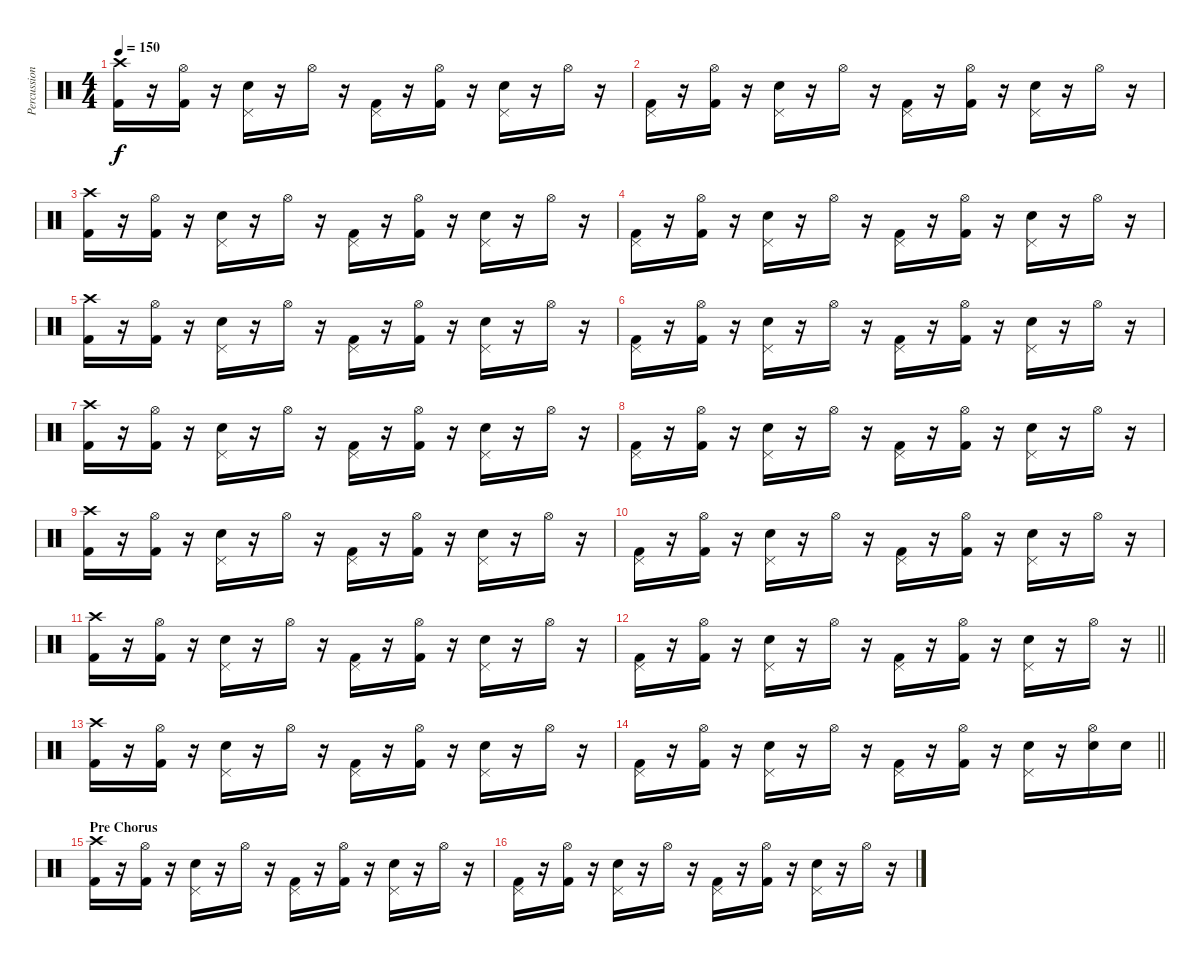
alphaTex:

\track ("Percussion" "Percussion") {instrument percussion}
\staff {score}
\articulation defaults
\ts (4 4)
\tempo 150
\clef neutral
\ks c
("Crash high (hit)" "Kick (hit) 2").16{dy f} r.16 ("Hi-Hat (open)" "Kick (hit) 2").16 r.16 ("Pedal Hi-Hat (hit)" "Snare (hit) 2").16 r.16 "Hi-Hat (open)".16 r.16 ("Pedal Hi-Hat (hit)" "Kick (hit) 2").16 r.16 ("Hi-Hat (open)" "Kick (hit) 2").16 r.16 ("Pedal Hi-Hat (hit)" "Snare (hit) 2").16 r.16 "Hi-Hat (open)".16 r.16 |
("Pedal Hi-Hat (hit)" "Kick (hit) 2").16 r.16 ("Hi-Hat (open)" "Kick (hit) 2").16 r.16 ("Pedal Hi-Hat (hit)" "Snare (hit) 2").16 r.16 "Hi-Hat (open)".16 r.16 ("Pedal Hi-Hat (hit)" "Kick (hit) 2").16 r.16 ("Hi-Hat (open)" "Kick (hit) 2").16 r.16 ("Pedal Hi-Hat (hit)" "Snare (hit) 2").16 r.16 "Hi-Hat (open)".16 r.16 |
("Crash high (hit)" "Kick (hit) 2").16 r.16 ("Hi-Hat (open)" "Kick (hit) 2").16 r.16 ("Pedal Hi-Hat (hit)" "Snare (hit) 2").16 r.16 "Hi-Hat (open)".16 r.16 ("Pedal Hi-Hat (hit)" "Kick (hit) 2").16 r.16 ("Hi-Hat (open)" "Kick (hit) 2").16 r.16 ("Pedal Hi-Hat (hit)" "Snare (hit) 2").16 r.16 "Hi-Hat (open)".16 r.16 |
("Pedal Hi-Hat (hit)" "Kick (hit) 2").16 r.16 ("Hi-Hat (open)" "Kick (hit) 2").16 r.16 ("Pedal Hi-Hat (hit)" "Snare (hit) 2").16 r.16 "Hi-Hat (open)".16 r.16 ("Pedal Hi-Hat (hit)" "Kick (hit) 2").16 r.16 ("Hi-Hat (open)" "Kick (hit) 2").16 r.16 ("Pedal Hi-Hat (hit)" "Snare (hit) 2").16 r.16 "Hi-Hat (open)".16 r.16 |
("Crash high (hit)" "Kick (hit) 2").16 r.16 ("Hi-Hat (open)" "Kick (hit) 2").16 r.16 ("Pedal Hi-Hat (hit)" "Snare (hit) 2").16 r.16 "Hi-Hat (open)".16 r.16 ("Pedal Hi-Hat (hit)" "Kick (hit) 2").16 r.16 ("Hi-Hat (open)" "Kick (hit) 2").16 r.16 ("Pedal Hi-Hat (hit)" "Snare (hit) 2").16 r.16 "Hi-Hat (open)".16 r.16 |
("Pedal Hi-Hat (hit)" "Kick (hit) 2").16 r.16 ("Hi-Hat (open)" "Kick (hit) 2").16 r.16 ("Pedal Hi-Hat (hit)" "Snare (hit) 2").16 r.16 "Hi-Hat (open)".16 r.16 ("Pedal Hi-Hat (hit)" "Kick (hit) 2").16 r.16 ("Hi-Hat (open)" "Kick (hit) 2").16 r.16 ("Pedal Hi-Hat (hit)" "Snare (hit) 2").16 r.16 "Hi-Hat (open)".16 r.16 |
("Crash high (hit)" "Kick (hit) 2").16 r.16 ("Hi-Hat (open)" "Kick (hit) 2").16 r.16 ("Pedal Hi-Hat (hit)" "Snare (hit) 2").16 r.16 "Hi-Hat (open)".16 r.16 ("Pedal Hi-Hat (hit)" "Kick (hit) 2").16 r.16 ("Hi-Hat (open)" "Kick (hit) 2").16 r.16 ("Pedal Hi-Hat (hit)" "Snare (hit) 2").16 r.16 "Hi-Hat (open)".16 r.16 |
("Pedal Hi-Hat (hit)" "Kick (hit) 2").16 r.16 ("Hi-Hat (open)" "Kick (hit) 2").16 r.16 ("Pedal Hi-Hat (hit)" "Snare (hit) 2").16 r.16 "Hi-Hat (open)".16 r.16 ("Pedal Hi-Hat (hit)" "Kick (hit) 2").16 r.16 ("Hi-Hat (open)" "Kick (hit) 2").16 r.16 ("Pedal Hi-Hat (hit)" "Snare (hit) 2").16 r.16 "Hi-Hat (open)".16 r.16 |
("Crash high (hit)" "Kick (hit) 2").16 r.16 ("Hi-Hat (open)" "Kick (hit) 2").16 r.16 ("Pedal Hi-Hat (hit)" "Snare (hit) 2").16 r.16 "Hi-Hat (open)".16 r.16 ("Pedal Hi-Hat (hit)" "Kick (hit) 2").16 r.16 ("Hi-Hat (open)" "Kick (hit) 2").16 r.16 ("Pedal Hi-Hat (hit)" "Snare (hit) 2").16 r.16 "Hi-Hat (open)".16 r.16 |
("Pedal Hi-Hat (hit)" "Kick (hit) 2").16 r.16 ("Hi-Hat (open)" "Kick (hit) 2").16 r.16 ("Pedal Hi-Hat (hit)" "Snare (hit) 2").16 r.16 "Hi-Hat (open)".16 r.16 ("Pedal Hi-Hat (hit)" "Kick (hit) 2").16 r.16 ("Hi-Hat (open)" "Kick (hit) 2").16 r.16 ("Pedal Hi-Hat (hit)" "Snare (hit) 2").16 r.16 "Hi-Hat (open)".16 r.16 |
("Crash high (hit)" "Kick (hit) 2").16 r.16 ("Hi-Hat (open)" "Kick (hit) 2").16 r.16 ("Pedal Hi-Hat (hit)" "Snare (hit) 2").16 r.16 "Hi-Hat (open)".16 r.16 ("Pedal Hi-Hat (hit)" "Kick (hit) 2").16 r.16 ("Hi-Hat (open)" "Kick (hit) 2").16 r.16 ("Pedal Hi-Hat (hit)" "Snare (hit) 2").16 r.16 "Hi-Hat (open)".16 r.16 |
\barLineRight lightlight
("Pedal Hi-Hat (hit)" "Kick (hit) 2").16 r.16 ("Hi-Hat (open)" "Kick (hit) 2").16 r.16 ("Pedal Hi-Hat (hit)" "Snare (hit) 2").16 r.16 "Hi-Hat (open)".16 r.16 ("Pedal Hi-Hat (hit)" "Kick (hit) 2").16 r.16 ("Hi-Hat (open)" "Kick (hit) 2").16 r.16 ("Pedal Hi-Hat (hit)" "Snare (hit) 2").16 r.16 "Hi-Hat (open)".16 r.16 |
("Crash high (hit)" "Kick (hit) 2").16 r.16 ("Hi-Hat (open)" "Kick (hit) 2").16 r.16 ("Pedal Hi-Hat (hit)" "Snare (hit) 2").16 r.16 "Hi-Hat (open)".16 r.16 ("Pedal Hi-Hat (hit)" "Kick (hit) 2").16 r.16 ("Hi-Hat (open)" "Kick (hit) 2").16 r.16 ("Pedal Hi-Hat (hit)" "Snare (hit) 2").16 r.16 "Hi-Hat (open)".16 r.16 |
\barLineRight lightlight
("Pedal Hi-Hat (hit)" "Kick (hit) 2").16 r.16 ("Hi-Hat (open)" "Kick (hit) 2").16 r.16 ("Pedal Hi-Hat (hit)" "Snare (hit) 2").16 r.16 "Hi-Hat (open)".16 r.16 ("Pedal Hi-Hat (hit)" "Kick (hit) 2").16 r.16 ("Hi-Hat (open)" "Kick (hit) 2").16 r.16 ("Pedal Hi-Hat (hit)" "Snare (hit) 2").16 r.16 ("Hi-Hat (open)" "Snare (hit) 2").16 "Snare (hit) 2".16 |
\section ("" "Pre Chorus")
("Crash high (hit)" "Kick (hit) 2").16 r.16 ("Hi-Hat (open)" "Kick (hit) 2").16 r.16 ("Pedal Hi-Hat (hit)" "Snare (hit) 2").16 r.16 "Hi-Hat (open)".16 r.16 ("Pedal Hi-Hat (hit)" "Kick (hit) 2").16 r.16 ("Hi-Hat (open)" "Kick (hit) 2").16 r.16 ("Pedal Hi-Hat (hit)" "Snare (hit) 2").16 r.16 "Hi-Hat (open)".16 r.16 |
("Pedal Hi-Hat (hit)" "Kick (hit) 2").16 r.16 ("Hi-Hat (open)" "Kick (hit) 2").16 r.16 ("Pedal Hi-Hat (hit)" "Snare (hit) 2").16 r.16 "Hi-Hat (open)".16 r.16 ("Pedal Hi-Hat (hit)" "Kick (hit) 2").16 r.16 ("Hi-Hat (open)" "Kick (hit) 2").16 r.16 ("Pedal Hi-Hat (hit)" "Snare (hit) 2").16 r.16 "Hi-Hat (open)".16 r.16
